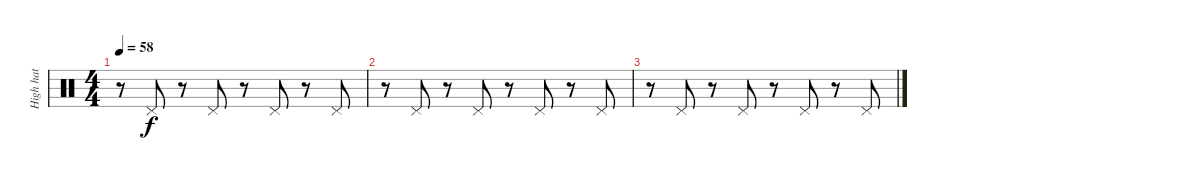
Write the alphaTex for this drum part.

\track ("High hat" "High hat") {instrument percussion}
\staff {score}
\articulation defaults
\ts (4 4)
\tempo 58
\clef neutral
\ks c
r.8{dy f} "Pedal Hi-Hat (hit)".8 r.8 "Pedal Hi-Hat (hit)".8 r.8 "Pedal Hi-Hat (hit)".8 r.8 "Pedal Hi-Hat (hit)".8 |
r.8 "Pedal Hi-Hat (hit)".8 r.8 "Pedal Hi-Hat (hit)".8 r.8 "Pedal Hi-Hat (hit)".8 r.8 "Pedal Hi-Hat (hit)".8 |
r.8 "Pedal Hi-Hat (hit)".8 r.8 "Pedal Hi-Hat (hit)".8 r.8 "Pedal Hi-Hat (hit)".8 r.8 "Pedal Hi-Hat (hit)".8
